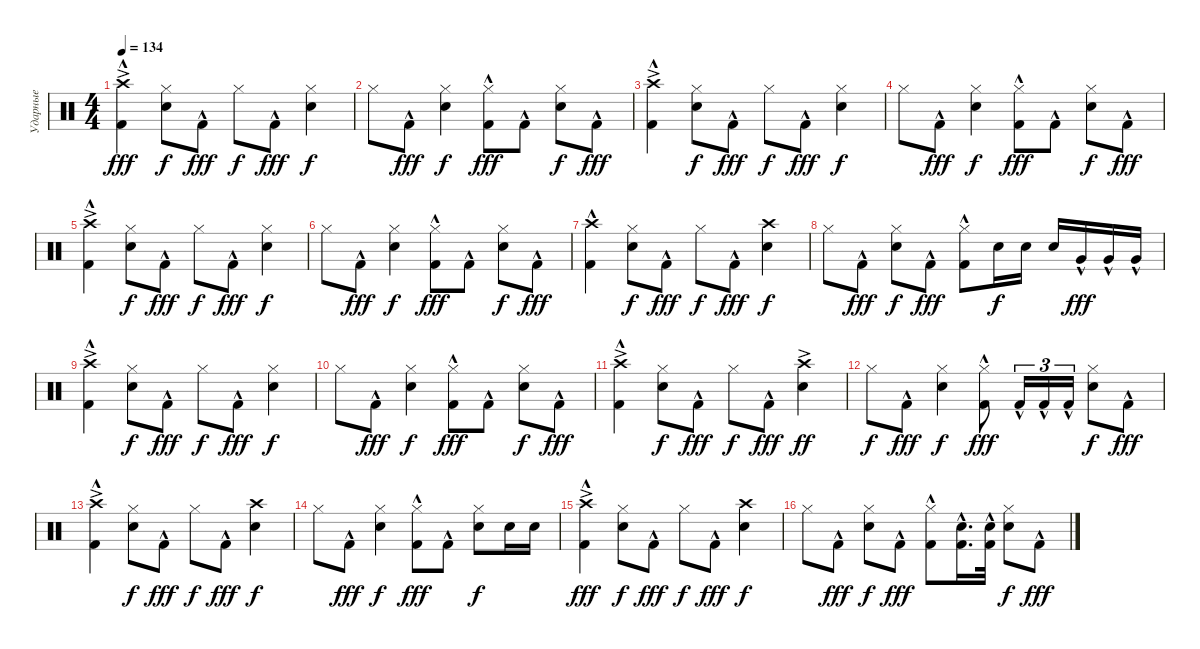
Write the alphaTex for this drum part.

\track ("Ударные" "Ударные") {instrument percussion}
\staff {score}
\articulation defaults
\ts (4 4)
\tempo 134
\clef neutral
\ks c
("Crash high (hit)"{ac} "Kick (hit) 2"{hac}).4{dy fff} ("Hi-Hat (closed)" "Snare (hit) 2").8{dy f} "Kick (hit) 2"{hac}.8{dy fff} "Hi-Hat (closed)".8{dy f} "Kick (hit) 2"{hac}.8{dy fff} ("Hi-Hat (closed)" "Snare (hit) 2").4{dy f} |
"Hi-Hat (closed)".8 "Kick (hit) 2"{hac}.8{dy fff} ("Hi-Hat (closed)" "Snare (hit) 2").4{dy f} ("Hi-Hat (closed)" "Kick (hit) 2"{hac}).8{dy fff} "Kick (hit) 2"{hac}.8 ("Hi-Hat (closed)" "Snare (hit) 2").8{dy f} "Kick (hit) 2"{hac}.8{dy fff} |
("Crash high (hit)"{ac} "Kick (hit) 2"{hac}).4 ("Hi-Hat (closed)" "Snare (hit) 2").8{dy f} "Kick (hit) 2"{hac}.8{dy fff} "Hi-Hat (closed)".8{dy f} "Kick (hit) 2"{hac}.8{dy fff} ("Hi-Hat (closed)" "Snare (hit) 2").4{dy f} |
"Hi-Hat (closed)".8 "Kick (hit) 2"{hac}.8{dy fff} ("Hi-Hat (closed)" "Snare (hit) 2").4{dy f} ("Hi-Hat (closed)" "Kick (hit) 2"{hac}).8{dy fff} "Kick (hit) 2"{hac}.8 ("Hi-Hat (closed)" "Snare (hit) 2").8{dy f} "Kick (hit) 2"{hac}.8{dy fff} |
("Crash high (hit)"{ac} "Kick (hit) 2"{hac}).4 ("Hi-Hat (closed)" "Snare (hit) 2").8{dy f} "Kick (hit) 2"{hac}.8{dy fff} "Hi-Hat (closed)".8{dy f} "Kick (hit) 2"{hac}.8{dy fff} ("Hi-Hat (closed)" "Snare (hit) 2").4{dy f} |
"Hi-Hat (closed)".8 "Kick (hit) 2"{hac}.8{dy fff} ("Hi-Hat (closed)" "Snare (hit) 2").4{dy f} ("Hi-Hat (closed)" "Kick (hit) 2"{hac}).8{dy fff} "Kick (hit) 2"{hac}.8 ("Hi-Hat (closed)" "Snare (hit) 2").8{dy f} "Kick (hit) 2"{hac}.8{dy fff} |
("Crash high (hit)" "Kick (hit) 2"{hac}).4 ("Hi-Hat (closed)" "Snare (hit) 2").8{dy f} "Kick (hit) 2"{hac}.8{dy fff} "Hi-Hat (closed)".8{dy f} "Kick (hit) 2"{hac}.8{dy fff} ("Crash high (hit)" "Snare (hit) 2").4{dy f} |
"Hi-Hat (closed)".8 "Kick (hit) 2"{hac}.8{dy fff} ("Hi-Hat (closed)" "Snare (hit) 2").8{dy f} "Kick (hit) 2"{hac}.8{dy fff} ("Hi-Hat (closed)" "Kick (hit) 2"{hac}).8 "Snare (hit) 2".16{dy f} "Snare (hit) 2".16 "Snare (hit) 2".16 "Very Low Tom (hit)"{hac}.16{dy fff} "Very Low Tom (hit)"{hac}.16 "Very Low Tom (hit)"{hac}.16 |
("Crash high (hit)"{ac} "Kick (hit) 2"{hac}).4 ("Hi-Hat (closed)" "Snare (hit) 2").8{dy f} "Kick (hit) 2"{hac}.8{dy fff} "Hi-Hat (closed)".8{dy f} "Kick (hit) 2"{hac}.8{dy fff} ("Hi-Hat (closed)" "Snare (hit) 2").4{dy f} |
"Hi-Hat (closed)".8 "Kick (hit) 2"{hac}.8{dy fff} ("Hi-Hat (closed)" "Snare (hit) 2").4{dy f} ("Hi-Hat (closed)" "Kick (hit) 2"{hac}).8{dy fff} "Kick (hit) 2"{hac}.8 ("Hi-Hat (closed)" "Snare (hit) 2").8{dy f} "Kick (hit) 2"{hac}.8{dy fff} |
("Crash high (hit)"{ac} "Kick (hit) 2"{hac}).4 ("Hi-Hat (closed)" "Snare (hit) 2").8{dy f} "Kick (hit) 2"{hac}.8{dy fff} "Hi-Hat (closed)".8{dy f} "Kick (hit) 2"{hac}.8{dy fff} ("Crash high (hit)"{ac} "Snare (hit) 2").4{dy ff} |
"Hi-Hat (closed)".8{dy f} "Kick (hit) 2"{hac}.8{dy fff} ("Hi-Hat (closed)" "Snare (hit) 2").4{dy f} ("Hi-Hat (closed)" "Kick (hit) 2"{hac}).8{dy fff} "Kick (hit) 2"{hac}.16{tu (3 2)} "Kick (hit) 2"{hac}.16{tu (3 2)} "Kick (hit) 2"{hac}.16{tu (3 2)} ("Hi-Hat (closed)" "Snare (hit) 2").8{dy f} "Kick (hit) 2"{hac}.8{dy fff} |
("Crash high (hit)"{ac} "Kick (hit) 2"{hac}).4 ("Hi-Hat (closed)" "Snare (hit) 2").8{dy f} "Kick (hit) 2"{hac}.8{dy fff} "Hi-Hat (closed)".8{dy f} "Kick (hit) 2"{hac}.8{dy fff} ("Crash high (hit)" "Snare (hit) 2").4{dy f} |
"Hi-Hat (closed)".8 "Kick (hit) 2"{hac}.8{dy fff} ("Hi-Hat (closed)" "Snare (hit) 2").4{dy f} ("Hi-Hat (closed)" "Kick (hit) 2"{hac}).8{dy fff} "Kick (hit) 2"{hac}.8 ("Hi-Hat (closed)" "Snare (hit) 2").8{dy f} "Snare (hit) 2".16 "Snare (hit) 2".16 |
("Crash high (hit)"{ac} "Kick (hit) 2"{hac}).4{dy fff} ("Hi-Hat (closed)" "Snare (hit) 2").8{dy f} "Kick (hit) 2"{hac}.8{dy fff} "Hi-Hat (closed)".8{dy f} "Kick (hit) 2"{hac}.8{dy fff} ("Crash high (hit)" "Snare (hit) 2").4{dy f} |
"Hi-Hat (closed)".8 "Kick (hit) 2"{hac}.8{dy fff} ("Hi-Hat (closed)" "Snare (hit) 2").8{dy f} "Kick (hit) 2"{hac}.8{dy fff} ("Hi-Hat (closed)" "Kick (hit) 2"{hac}).8 ("Snare (hit) 2" "Kick (hit) 2"{hac}).16{d} ("Snare (hit) 2" "Kick (hit) 2"{hac}).32 ("Hi-Hat (closed)" "Snare (hit) 2").8{dy f} "Kick (hit) 2"{hac}.8{dy fff}
